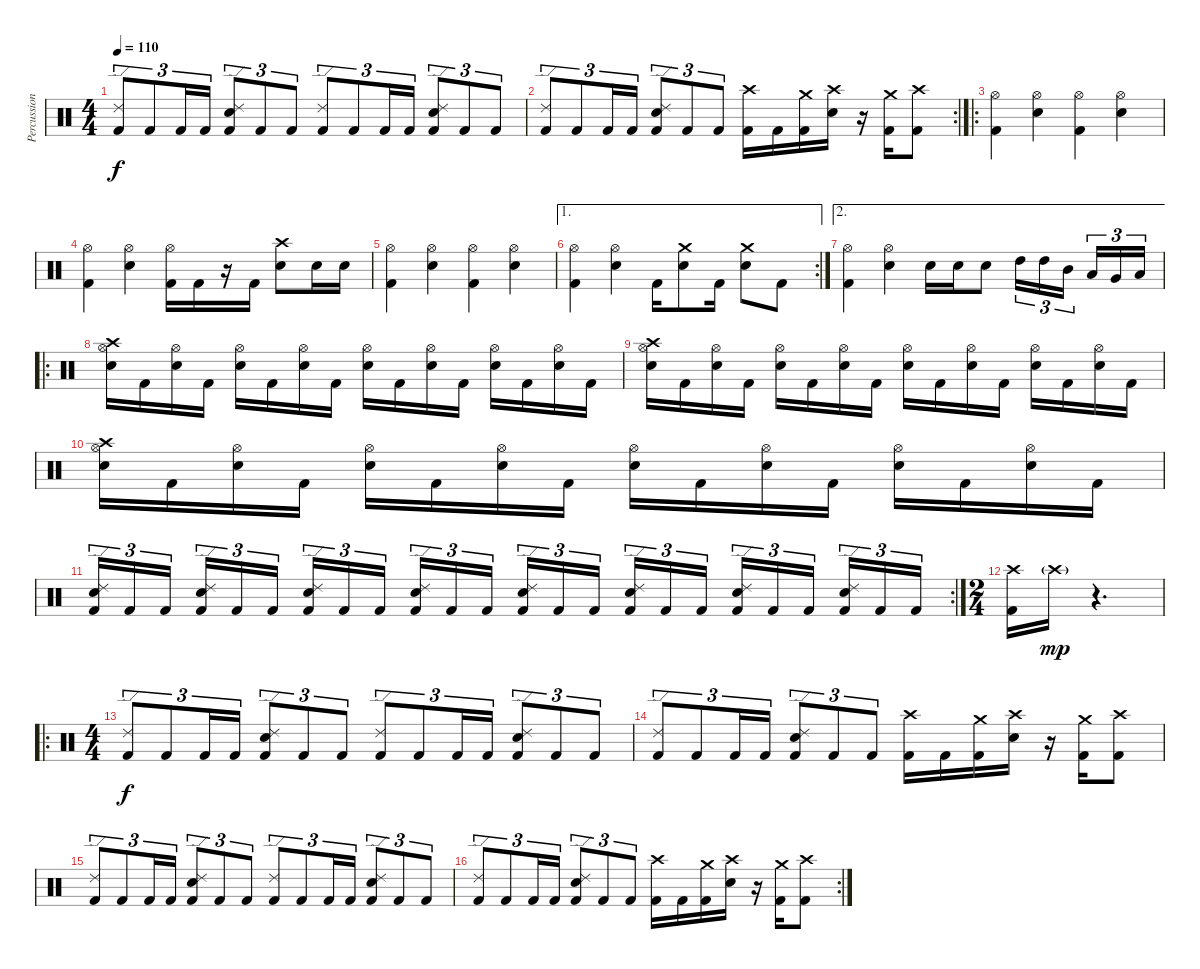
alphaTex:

\track ("Percussion" "Percussion") {instrument percussion}
\staff {score}
\articulation defaults
\ts (4 4)
\tempo 110
\clef neutral
\ks c
("Ride (edge) 2" "Kick (hit) 2").8{tu (3 2) dy f} "Kick (hit) 2".8{tu (3 2)} "Kick (hit) 2".16{tu (3 2)} "Kick (hit) 2".16{tu (3 2)} ("Ride (edge) 2" "Snare (hit) 2" "Kick (hit) 2").8{tu (3 2)} "Kick (hit) 2".8{tu (3 2)} "Kick (hit) 2".8{tu (3 2)} ("Ride (edge) 2" "Kick (hit) 2").8{tu (3 2)} "Kick (hit) 2".8{tu (3 2)} "Kick (hit) 2".16{tu (3 2)} "Kick (hit) 2".16{tu (3 2)} ("Ride (edge) 2" "Snare (hit) 2" "Kick (hit) 2").8{tu (3 2)} "Kick (hit) 2".8{tu (3 2)} "Kick (hit) 2".8{tu (3 2)} |
\rc 2
("Ride (edge) 2" "Kick (hit) 2").8{tu (3 2)} "Kick (hit) 2".8{tu (3 2)} "Kick (hit) 2".16{tu (3 2)} "Kick (hit) 2".16{tu (3 2)} ("Ride (edge) 2" "Snare (hit) 2" "Kick (hit) 2").8{tu (3 2)} "Kick (hit) 2".8{tu (3 2)} "Kick (hit) 2".8{tu (3 2)} ("Crash high (hit)" "Kick (hit) 2").16 "Kick (hit) 2".16 ("Crash medium (hit)" "Kick (hit) 2").16 ("Crash high (hit)" "Snare (hit) 2").16 r.16 ("Crash medium (hit)" "Kick (hit) 2").16 ("Crash high (hit)" "Kick (hit) 2").8 |
\ro
("Hi-Hat (open)" "Kick (hit) 2").4 ("Hi-Hat (open)" "Snare (hit) 2").4 ("Hi-Hat (open)" "Kick (hit) 2").4 ("Hi-Hat (open)" "Snare (hit) 2").4 |
("Hi-Hat (open)" "Kick (hit) 2").4 ("Hi-Hat (open)" "Snare (hit) 2").4 ("Hi-Hat (open)" "Kick (hit) 2").16 "Kick (hit) 2".16 r.16 "Kick (hit) 2".16 ("Crash high (hit)" "Snare (hit) 2").8 "Snare (hit) 2".16 "Snare (hit) 2".16 |
("Hi-Hat (open)" "Kick (hit) 2").4 ("Hi-Hat (open)" "Snare (hit) 2").4 ("Hi-Hat (open)" "Kick (hit) 2").4 ("Hi-Hat (open)" "Snare (hit) 2").4 |
\ae 1
\rc 2
("Hi-Hat (open)" "Kick (hit) 2").4 ("Hi-Hat (open)" "Snare (hit) 2").4 "Kick (hit) 2".16 ("Crash medium (hit)" "Snare (hit) 2").8 "Kick (hit) 2".16 ("Crash medium (hit)" "Snare (hit) 2").8 "Kick (hit) 2".8 |
\ae 2
("Hi-Hat (open)" "Kick (hit) 2").4 ("Hi-Hat (open)" "Snare (hit) 2").4 "Snare (hit) 2".16 "Snare (hit) 2".16 "Snare (hit) 2".8 "High Tom (hit)".16{tu (3 2)} "High Tom (hit)".16{tu (3 2)} "Mid Tom (hit)".16{tu (3 2) beam splitsecondary} "Low Tom (hit)".16{tu (3 2)} "Very Low Tom (hit)".16{tu (3 2)} "Low Floor Tom (hit)".16{tu (3 2)} |
\ro
("Crash high (hit)" "Hi-Hat (open)" "Snare (hit) 2").16 "Kick (hit) 2".16 ("Hi-Hat (open)" "Snare (hit) 2").16 "Kick (hit) 2".16 ("Hi-Hat (open)" "Snare (hit) 2").16 "Kick (hit) 2".16 ("Hi-Hat (open)" "Snare (hit) 2").16 "Kick (hit) 2".16 ("Hi-Hat (open)" "Snare (hit) 2").16 "Kick (hit) 2".16 ("Hi-Hat (open)" "Snare (hit) 2").16 "Kick (hit) 2".16 ("Hi-Hat (open)" "Snare (hit) 2").16 "Kick (hit) 2".16 ("Hi-Hat (open)" "Snare (hit) 2").16 "Kick (hit) 2".16 |
("Crash high (hit)" "Hi-Hat (open)" "Snare (hit) 2").16 "Kick (hit) 2".16 ("Hi-Hat (open)" "Snare (hit) 2").16 "Kick (hit) 2".16 ("Hi-Hat (open)" "Snare (hit) 2").16 "Kick (hit) 2".16 ("Hi-Hat (open)" "Snare (hit) 2").16 "Kick (hit) 2".16 ("Hi-Hat (open)" "Snare (hit) 2").16 "Kick (hit) 2".16 ("Hi-Hat (open)" "Snare (hit) 2").16 "Kick (hit) 2".16 ("Hi-Hat (open)" "Snare (hit) 2").16 "Kick (hit) 2".16 ("Hi-Hat (open)" "Snare (hit) 2").16 "Kick (hit) 2".16 |
("Crash high (hit)" "Hi-Hat (open)" "Snare (hit) 2").16 "Kick (hit) 2".16 ("Hi-Hat (open)" "Snare (hit) 2").16 "Kick (hit) 2".16 ("Hi-Hat (open)" "Snare (hit) 2").16 "Kick (hit) 2".16 ("Hi-Hat (open)" "Snare (hit) 2").16 "Kick (hit) 2".16 ("Hi-Hat (open)" "Snare (hit) 2").16 "Kick (hit) 2".16 ("Hi-Hat (open)" "Snare (hit) 2").16 "Kick (hit) 2".16 ("Hi-Hat (open)" "Snare (hit) 2").16 "Kick (hit) 2".16 ("Hi-Hat (open)" "Snare (hit) 2").16 "Kick (hit) 2".16 |
\rc 2
("Ride (edge) 2" "Snare (hit) 2" "Kick (hit) 2").16{tu (3 2)} "Kick (hit) 2".16{tu (3 2)} "Kick (hit) 2".16{tu (3 2) beam splitsecondary} ("Ride (edge) 2" "Snare (hit) 2" "Kick (hit) 2").16{tu (3 2)} "Kick (hit) 2".16{tu (3 2)} "Kick (hit) 2".16{tu (3 2)} ("Ride (edge) 2" "Snare (hit) 2" "Kick (hit) 2").16{tu (3 2)} "Kick (hit) 2".16{tu (3 2)} "Kick (hit) 2".16{tu (3 2) beam splitsecondary} ("Ride (edge) 2" "Snare (hit) 2" "Kick (hit) 2").16{tu (3 2)} "Kick (hit) 2".16{tu (3 2)} "Kick (hit) 2".16{tu (3 2)} ("Ride (edge) 2" "Snare (hit) 2" "Kick (hit) 2").16{tu (3 2)} "Kick (hit) 2".16{tu (3 2)} "Kick (hit) 2".16{tu (3 2) beam splitsecondary} ("Ride (edge) 2" "Snare (hit) 2" "Kick (hit) 2").16{tu (3 2)} "Kick (hit) 2".16{tu (3 2)} "Kick (hit) 2".16{tu (3 2)} ("Ride (edge) 2" "Snare (hit) 2" "Kick (hit) 2").16{tu (3 2)} "Kick (hit) 2".16{tu (3 2)} "Kick (hit) 2".16{tu (3 2) beam splitsecondary} ("Ride (edge) 2" "Snare (hit) 2" "Kick (hit) 2").16{tu (3 2)} "Kick (hit) 2".16{tu (3 2)} "Kick (hit) 2".16{tu (3 2)} |
\ts (2 4)
("Crash high (hit)" "Kick (hit) 2").16 "Crash high (hit)"{g}.16{dy mp} r.4{d} |
\ro
\ts (4 4)
("Ride (edge) 2" "Kick (hit) 2").8{tu (3 2) dy f} "Kick (hit) 2".8{tu (3 2)} "Kick (hit) 2".16{tu (3 2)} "Kick (hit) 2".16{tu (3 2)} ("Ride (edge) 2" "Snare (hit) 2" "Kick (hit) 2").8{tu (3 2)} "Kick (hit) 2".8{tu (3 2)} "Kick (hit) 2".8{tu (3 2)} ("Ride (edge) 2" "Kick (hit) 2").8{tu (3 2)} "Kick (hit) 2".8{tu (3 2)} "Kick (hit) 2".16{tu (3 2)} "Kick (hit) 2".16{tu (3 2)} ("Ride (edge) 2" "Snare (hit) 2" "Kick (hit) 2").8{tu (3 2)} "Kick (hit) 2".8{tu (3 2)} "Kick (hit) 2".8{tu (3 2)} |
("Ride (edge) 2" "Kick (hit) 2").8{tu (3 2)} "Kick (hit) 2".8{tu (3 2)} "Kick (hit) 2".16{tu (3 2)} "Kick (hit) 2".16{tu (3 2)} ("Ride (edge) 2" "Snare (hit) 2" "Kick (hit) 2").8{tu (3 2)} "Kick (hit) 2".8{tu (3 2)} "Kick (hit) 2".8{tu (3 2)} ("Crash high (hit)" "Kick (hit) 2").16 "Kick (hit) 2".16 ("Crash medium (hit)" "Kick (hit) 2").16 ("Crash high (hit)" "Snare (hit) 2").16 r.16 ("Crash medium (hit)" "Kick (hit) 2").16 ("Crash high (hit)" "Kick (hit) 2").8 |
("Ride (edge) 2" "Kick (hit) 2").8{tu (3 2)} "Kick (hit) 2".8{tu (3 2)} "Kick (hit) 2".16{tu (3 2)} "Kick (hit) 2".16{tu (3 2)} ("Ride (edge) 2" "Snare (hit) 2" "Kick (hit) 2").8{tu (3 2)} "Kick (hit) 2".8{tu (3 2)} "Kick (hit) 2".8{tu (3 2)} ("Ride (edge) 2" "Kick (hit) 2").8{tu (3 2)} "Kick (hit) 2".8{tu (3 2)} "Kick (hit) 2".16{tu (3 2)} "Kick (hit) 2".16{tu (3 2)} ("Ride (edge) 2" "Snare (hit) 2" "Kick (hit) 2").8{tu (3 2)} "Kick (hit) 2".8{tu (3 2)} "Kick (hit) 2".8{tu (3 2)} |
\rc 2
("Ride (edge) 2" "Kick (hit) 2").8{tu (3 2)} "Kick (hit) 2".8{tu (3 2)} "Kick (hit) 2".16{tu (3 2)} "Kick (hit) 2".16{tu (3 2)} ("Ride (edge) 2" "Snare (hit) 2" "Kick (hit) 2").8{tu (3 2)} "Kick (hit) 2".8{tu (3 2)} "Kick (hit) 2".8{tu (3 2)} ("Crash high (hit)" "Kick (hit) 2").16 "Kick (hit) 2".16 ("Crash medium (hit)" "Kick (hit) 2").16 ("Crash high (hit)" "Snare (hit) 2").16 r.16 ("Crash medium (hit)" "Kick (hit) 2").16 ("Crash high (hit)" "Kick (hit) 2").8
